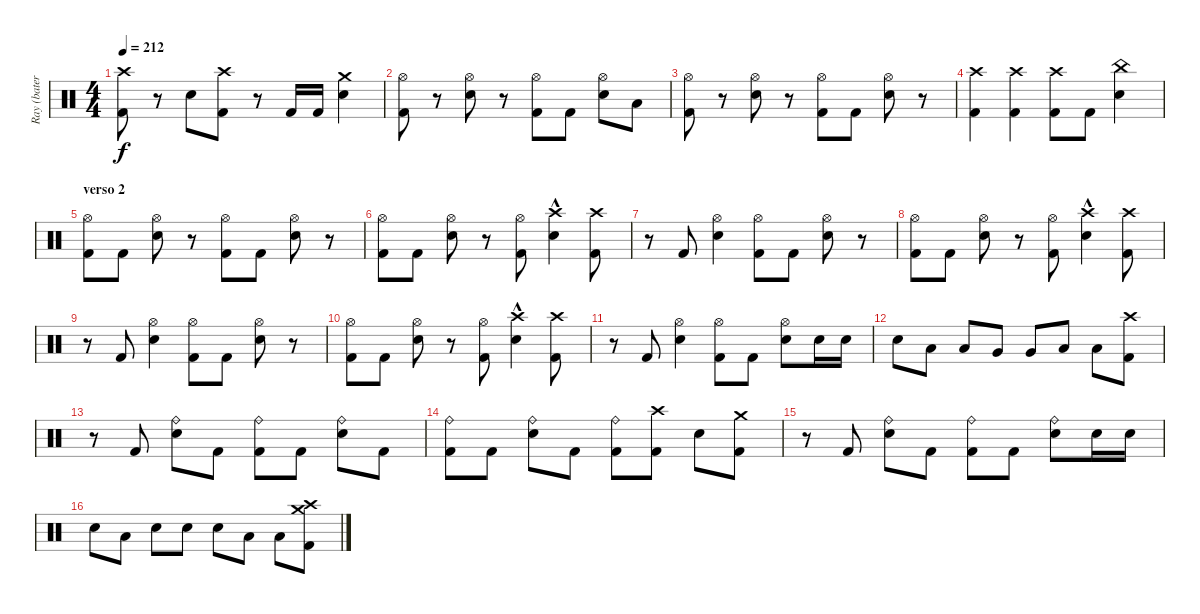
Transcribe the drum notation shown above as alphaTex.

\track ("Ray (batería)" "Ray (bater") {instrument percussion}
\staff {score}
\articulation defaults
\ts (4 4)
\tempo 212
\clef neutral
\ks c
("Crash high (hit)" "Kick (hit) 2").8{dy f} r.8 "Snare (hit) 2".8 ("Crash high (hit)" "Kick (hit) 2").8 r.8 "Kick (hit) 2".16 "Kick (hit) 2".16 ("Crash medium (hit)" "Snare (hit) 2").4 |
("Hi-Hat (open)" "Kick (hit) 2").8 r.8 ("Hi-Hat (open)" "Snare (hit) 2").8 r.8 ("Hi-Hat (open)" "Kick (hit) 2").8 "Kick (hit) 2".8 ("Hi-Hat (open)" "Snare (hit) 2").8 "Low Tom (hit)".8 |
("Hi-Hat (open)" "Kick (hit) 2").8 r.8 ("Hi-Hat (open)" "Snare (hit) 2").8 r.8 ("Hi-Hat (open)" "Kick (hit) 2").8 "Kick (hit) 2".8 ("Hi-Hat (open)" "Snare (hit) 2").8 r.8 |
("Crash high (hit)" "Kick (hit) 2").4 ("Crash high (hit)" "Kick (hit) 2").4 ("Crash high (hit)" "Kick (hit) 2").8 "Kick (hit) 2".8 ("China (hit)" "Snare (hit) 2").4 |
\section ("" "verso 2")
("Hi-Hat (open)" "Kick (hit) 2").8 "Kick (hit) 2".8 ("Hi-Hat (open)" "Snare (hit) 2").8 r.8 ("Hi-Hat (open)" "Kick (hit) 2").8 "Kick (hit) 2".8 ("Hi-Hat (open)" "Snare (hit) 2").8 r.8 |
("Hi-Hat (open)" "Kick (hit) 2").8 "Kick (hit) 2".8 ("Hi-Hat (open)" "Snare (hit) 2").8 r.8 ("Hi-Hat (open)" "Kick (hit) 2").8 ("Crash high (hit)" "Snare (hit) 2"{hac}).4 ("Crash high (hit)" "Kick (hit) 2").8 |
r.8 "Kick (hit) 2".8 ("Hi-Hat (open)" "Snare (hit) 2").4 ("Hi-Hat (open)" "Kick (hit) 2").8 "Kick (hit) 2".8 ("Hi-Hat (open)" "Snare (hit) 2").8 r.8 |
("Hi-Hat (open)" "Kick (hit) 2").8 "Kick (hit) 2".8 ("Hi-Hat (open)" "Snare (hit) 2").8 r.8 ("Hi-Hat (open)" "Kick (hit) 2").8 ("Crash high (hit)" "Snare (hit) 2"{hac}).4 ("Crash high (hit)" "Kick (hit) 2").8 |
r.8 "Kick (hit) 2".8 ("Hi-Hat (open)" "Snare (hit) 2").4 ("Hi-Hat (open)" "Kick (hit) 2").8 "Kick (hit) 2".8 ("Hi-Hat (open)" "Snare (hit) 2").8 r.8 |
("Hi-Hat (open)" "Kick (hit) 2").8 "Kick (hit) 2".8 ("Hi-Hat (open)" "Snare (hit) 2").8 r.8 ("Hi-Hat (open)" "Kick (hit) 2").8 ("Crash high (hit)" "Snare (hit) 2"{hac}).4 ("Crash high (hit)" "Kick (hit) 2").8 |
r.8 "Kick (hit) 2".8 ("Hi-Hat (open)" "Snare (hit) 2").4 ("Hi-Hat (open)" "Kick (hit) 2").8 "Kick (hit) 2".8 ("Hi-Hat (open)" "Snare (hit) 2").8 "Snare (hit) 2".16 "Snare (hit) 2".16 |
"Snare (hit) 2".8 "Low Tom (hit)".8 "Low Tom (hit)".8 "Very Low Tom (hit)".8 "Very Low Tom (hit)".8 "Low Floor Tom (hit)".8 "Low Floor Tom (hit)".8 ("Crash high (hit)" "Kick (hit) 2").8 |
r.8 "Kick (hit) 2".8 ("Ride (bell)" "Snare (hit) 2").8 "Kick (hit) 2".8 ("Ride (bell)" "Kick (hit) 2").8 "Kick (hit) 2".8 ("Ride (bell)" "Snare (hit) 2").8 "Kick (hit) 2".8 |
("Ride (bell)" "Kick (hit) 2").8 "Kick (hit) 2".8 ("Ride (bell)" "Snare (hit) 2").8 "Kick (hit) 2".8 ("Ride (bell)" "Kick (hit) 2").8 ("Crash high (hit)" "Kick (hit) 2").8 "Snare (hit) 2".8 ("Crash medium (hit)" "Kick (hit) 2").8 |
r.8 "Kick (hit) 2".8 ("Ride (bell)" "Snare (hit) 2").8 "Kick (hit) 2".8 ("Ride (bell)" "Kick (hit) 2").8 "Kick (hit) 2".8 ("Ride (bell)" "Snare (hit) 2").8 "Snare (hit) 2".16 "Snare (hit) 2".16 |
"Snare (hit) 2".8 "Low Tom (hit)".8 "Snare (hit) 2".8 "Snare (hit) 2".8 "Snare (hit) 2".8 "Low Tom (hit)".8 "Low Tom (hit)".8 ("Crash high (hit)" "Crash medium (hit)" "Kick (hit) 2").8
